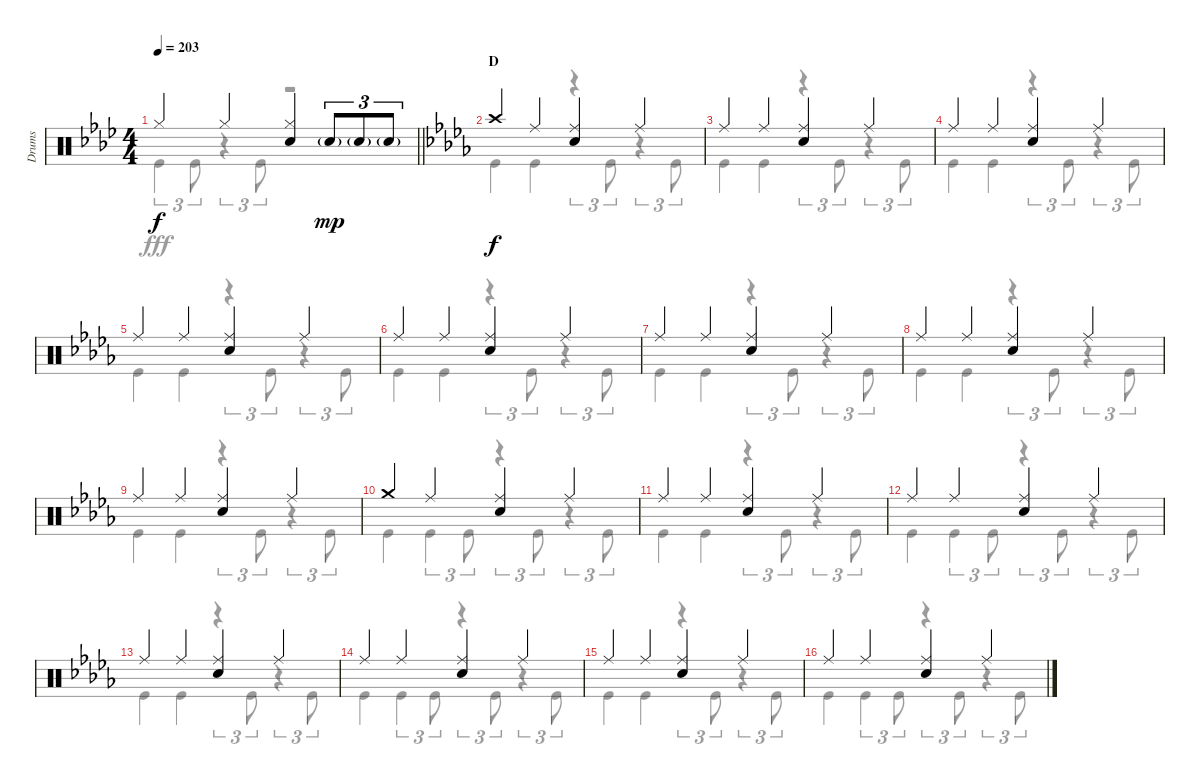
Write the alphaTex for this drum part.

\track ("Drums" "Drums") {instrument percussion}
\staff {score}
\articulation defaults
\voice
\ts (4 4)
\tempo 203
\clef neutral
\barLineRight lightlight
\ks ab "Hi-Hat (closed)".4{dy f} "Hi-Hat (closed)".4
("Hi-Hat (closed)" "Snare (hit) 2").4 "Snare (hit) 2"{g}.8{tu (3 2) dy mp} "Snare (hit) 2"{g}.8{tu (3 2)} "Snare (hit) 2"{g}.8{tu (3 2)} |
\section ("" "D")
\ks db "Crash high (hit)".4{dy f} "Ride (middle)".4
("Ride (middle)" "Snare (hit) 2").4 "Ride (middle)".4 |
"Ride (middle)".4 "Ride (middle)".4 ("Ride (middle)" "Snare (hit) 2").4 "Ride (middle)".4 |
"Ride (middle)".4 "Ride (middle)".4 ("Ride (middle)" "Snare (hit) 2").4 "Ride (middle)".4 |
"Ride (middle)".4 "Ride (middle)".4 ("Ride (middle)" "Snare (hit) 2").4 "Ride (middle)".4 |
"Ride (middle)".4 "Ride (middle)".4 ("Ride (middle)" "Snare (hit) 2").4 "Ride (middle)".4 |
"Ride (middle)".4 "Ride (middle)".4 ("Ride (middle)" "Snare (hit) 2").4 "Ride (middle)".4 |
"Ride (middle)".4 "Ride (middle)".4 ("Ride (middle)" "Snare (hit) 2").4 "Ride (middle)".4 |
"Ride (middle)".4 "Ride (middle)".4 ("Ride (middle)" "Snare (hit) 2").4 "Ride (middle)".4 |
"Crash medium (hit)".4 "Ride (middle)".4 ("Ride (middle)" "Snare (hit) 2").4 "Ride (middle)".4 |
"Ride (middle)".4 "Ride (middle)".4 ("Ride (middle)" "Snare (hit) 2").4 "Ride (middle)".4 |
"Ride (middle)".4 "Ride (middle)".4 ("Ride (middle)" "Snare (hit) 2").4 "Ride (middle)".4 |
"Ride (middle)".4 "Ride (middle)".4 ("Ride (middle)" "Snare (hit) 2").4 "Ride (middle)".4 |
"Ride (middle)".4 "Ride (middle)".4 ("Ride (middle)" "Snare (hit) 2").4 "Ride (middle)".4 |
"Ride (middle)".4 "Ride (middle)".4 ("Ride (middle)" "Snare (hit) 2").4 "Ride (middle)".4 |
"Ride (middle)".4 "Ride (middle)".4 ("Ride (middle)" "Snare (hit) 2").4 "Ride (middle)".4
\voice
\clef neutral
\ottava regular
\simile none
\barLineRight lightlight
\ks ab "Kick (hit)".4{tu (3 2) dy fff} "Kick (hit)".8{tu (3 2)}
r.4{tu (3 2)} "Kick (hit)".8{tu (3 2)} r.2 |
\ks db "Kick (hit)".4 "Kick (hit)".4
r.4{tu (3 2)} "Kick (hit)".8{tu (3 2)} r.4{tu (3 2)} "Kick (hit)".8{tu (3 2)} |
"Kick (hit)".4 "Kick (hit)".4 r.4{tu (3 2)} "Kick (hit)".8{tu (3 2)} r.4{tu (3 2)} "Kick (hit)".8{tu (3 2)} |
"Kick (hit)".4 "Kick (hit)".4 r.4{tu (3 2)} "Kick (hit)".8{tu (3 2)} r.4{tu (3 2)} "Kick (hit)".8{tu (3 2)} |
"Kick (hit)".4 "Kick (hit)".4 r.4{tu (3 2)} "Kick (hit)".8{tu (3 2)} r.4{tu (3 2)} "Kick (hit)".8{tu (3 2)} |
"Kick (hit)".4 "Kick (hit)".4 r.4{tu (3 2)} "Kick (hit)".8{tu (3 2)} r.4{tu (3 2)} "Kick (hit)".8{tu (3 2)} |
"Kick (hit)".4 "Kick (hit)".4 r.4{tu (3 2)} "Kick (hit)".8{tu (3 2)} r.4{tu (3 2)} "Kick (hit)".8{tu (3 2)} |
"Kick (hit)".4 "Kick (hit)".4 r.4{tu (3 2)} "Kick (hit)".8{tu (3 2)} r.4{tu (3 2)} "Kick (hit)".8{tu (3 2)} |
"Kick (hit)".4 "Kick (hit)".4 r.4{tu (3 2)} "Kick (hit)".8{tu (3 2)} r.4{tu (3 2)} "Kick (hit)".8{tu (3 2)} |
"Kick (hit)".4 "Kick (hit)".4{tu (3 2)} "Kick (hit)".8{tu (3 2)} r.4{tu (3 2)} "Kick (hit)".8{tu (3 2)} r.4{tu (3 2)} "Kick (hit)".8{tu (3 2)} |
"Kick (hit)".4 "Kick (hit)".4 r.4{tu (3 2)} "Kick (hit)".8{tu (3 2)} r.4{tu (3 2)} "Kick (hit)".8{tu (3 2)} |
"Kick (hit)".4 "Kick (hit)".4{tu (3 2)} "Kick (hit)".8{tu (3 2)} r.4{tu (3 2)} "Kick (hit)".8{tu (3 2)} r.4{tu (3 2)} "Kick (hit)".8{tu (3 2)} |
"Kick (hit)".4 "Kick (hit)".4 r.4{tu (3 2)} "Kick (hit)".8{tu (3 2)} r.4{tu (3 2)} "Kick (hit)".8{tu (3 2)} |
"Kick (hit)".4 "Kick (hit)".4{tu (3 2)} "Kick (hit)".8{tu (3 2)} r.4{tu (3 2)} "Kick (hit)".8{tu (3 2)} r.4{tu (3 2)} "Kick (hit)".8{tu (3 2)} |
"Kick (hit)".4 "Kick (hit)".4 r.4{tu (3 2)} "Kick (hit)".8{tu (3 2)} r.4{tu (3 2)} "Kick (hit)".8{tu (3 2)} |
"Kick (hit)".4 "Kick (hit)".4{tu (3 2)} "Kick (hit)".8{tu (3 2)} r.4{tu (3 2)} "Kick (hit)".8{tu (3 2)} r.4{tu (3 2)} "Kick (hit)".8{tu (3 2)}
